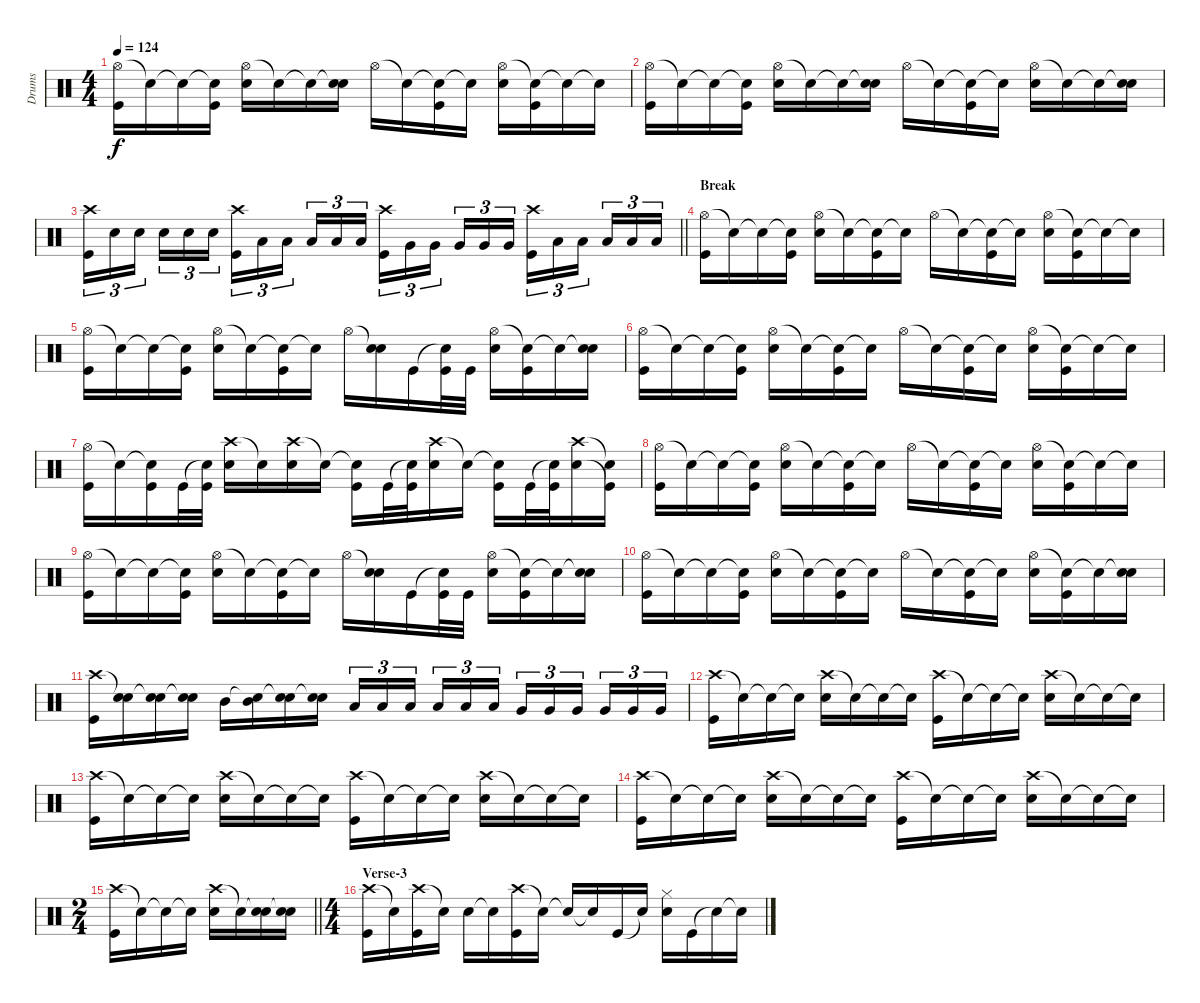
\track ("Drums" "Drums") {instrument percussion}
\staff {score}
\articulation defaults
\ts (4 4)
\tempo 124
\clef neutral
\ks c
("Hi-Hat (open)" "Kick (hit)").16{dy f} "Snare (hit)"{t}.16 "Snare (hit)"{t}.16 ("Snare (hit)"{t} "Kick (hit)").16 ("Hi-Hat (open)" "Electric Snare (hit)").16 "Snare (hit)"{t}.16 "Snare (hit)"{t}.16 ("Snare (hit)"{t} "Electric Snare (hit)").16 "Hi-Hat (open)".16 "Snare (hit)"{t}.16 ("Snare (hit)"{t} "Kick (hit)").16 "Snare (hit)"{t}.16 ("Hi-Hat (open)" "Electric Snare (hit)").16 ("Snare (hit)"{t} "Kick (hit)").16 "Snare (hit)"{t}.16 "Snare (hit)"{t}.16 |
("Hi-Hat (open)" "Kick (hit)").16 "Snare (hit)"{t}.16 "Snare (hit)"{t}.16 ("Snare (hit)"{t} "Kick (hit)").16 ("Hi-Hat (open)" "Electric Snare (hit)").16 "Snare (hit)"{t}.16 "Snare (hit)"{t}.16 ("Snare (hit)"{t} "Electric Snare (hit)").16 "Hi-Hat (open)".16 "Snare (hit)"{t}.16 ("Snare (hit)"{t} "Kick (hit)").16 "Snare (hit)"{t}.16 ("Hi-Hat (open)" "Electric Snare (hit)").16 "Snare (hit)"{t}.16 "Snare (hit)"{t}.16 ("Snare (hit)"{t} "Electric Snare (hit)").16 |
\barLineRight lightlight
("Crash high (hit)" "Kick (hit)").16{tu (3 2)} "Electric Snare (hit)".16{tu (3 2)} "Electric Snare (hit)".16{tu (3 2)} "Electric Snare (hit)".16{tu (3 2)} "Electric Snare (hit)".16{tu (3 2)} "Electric Snare (hit)".16{tu (3 2)} ("Crash high (hit)" "Kick (hit)").16{tu (3 2)} "Low Tom (hit)".16{tu (3 2)} "Low Tom (hit)".16{tu (3 2)} "Low Tom (hit)".16{tu (3 2)} "Low Tom (hit)".16{tu (3 2)} "Low Tom (hit)".16{tu (3 2)} ("Crash high (hit)" "Kick (hit)").16{tu (3 2)} "Very Low Tom (hit)".16{tu (3 2)} "Very Low Tom (hit)".16{tu (3 2)} "Very Low Tom (hit)".16{tu (3 2)} "Very Low Tom (hit)".16{tu (3 2)} "Very Low Tom (hit)".16{tu (3 2)} ("Crash high (hit)" "Kick (hit)").16{tu (3 2)} "Low Floor Tom (hit)".16{tu (3 2)} "Low Floor Tom (hit)".16{tu (3 2)} "Low Floor Tom (hit)".16{tu (3 2)} "Low Floor Tom (hit)".16{tu (3 2)} "Low Floor Tom (hit)".16{tu (3 2)} |
\section ("" "Break")
("Hi-Hat (open)" "Kick (hit)").16 "Snare (hit)"{t}.16 "Snare (hit)"{t}.16 ("Snare (hit)"{t} "Kick (hit)").16 ("Hi-Hat (open)" "Electric Snare (hit)").16 "Snare (hit)"{t}.16 ("Snare (hit)"{t} "Kick (hit)").16 "Snare (hit)"{t}.16 "Hi-Hat (open)".16 "Snare (hit)"{t}.16 ("Snare (hit)"{t} "Kick (hit)").16 "Snare (hit)"{t}.16 ("Hi-Hat (open)" "Electric Snare (hit)").16 ("Snare (hit)"{t} "Kick (hit)").16 "Snare (hit)"{t}.16 "Snare (hit)"{t}.16 |
("Hi-Hat (open)" "Kick (hit)").16 "Snare (hit)"{t}.16 "Snare (hit)"{t}.16 ("Snare (hit)"{t} "Kick (hit)").16 ("Hi-Hat (open)" "Electric Snare (hit)").16 "Snare (hit)"{t}.16 ("Snare (hit)"{t} "Kick (hit)").16 "Snare (hit)"{t}.16 "Hi-Hat (open)".16 ("Snare (hit)"{t} "Electric Snare (hit)").16 "Kick (hit)".16 ("Snare (hit)"{t} "Kick (hit)").32 "Kick (hit)".32 ("Hi-Hat (open)" "Electric Snare (hit)").16 ("Snare (hit)"{t} "Kick (hit)").16 "Snare (hit)"{t}.16 ("Snare (hit)"{t} "Electric Snare (hit)").16 |
("Hi-Hat (open)" "Kick (hit)").16 "Snare (hit)"{t}.16 "Snare (hit)"{t}.16 ("Snare (hit)"{t} "Kick (hit)").16 ("Hi-Hat (open)" "Electric Snare (hit)").16 "Snare (hit)"{t}.16 ("Snare (hit)"{t} "Kick (hit)").16 "Snare (hit)"{t}.16 "Hi-Hat (open)".16 "Snare (hit)"{t}.16 ("Snare (hit)"{t} "Kick (hit)").16 "Snare (hit)"{t}.16 ("Hi-Hat (open)" "Electric Snare (hit)").16 ("Snare (hit)"{t} "Kick (hit)").16 "Snare (hit)"{t}.16 "Snare (hit)"{t}.16 |
("Hi-Hat (open)" "Kick (hit)").16 "Snare (hit)"{t}.16 ("Snare (hit)"{t} "Kick (hit)").16 "Kick (hit)".32 ("Snare (hit)"{t} "Kick (hit)").32 ("Crash high (hit)" "Electric Snare (hit)").16 "Snare (hit)"{t}.16 ("Crash high (hit)" "Electric Snare (hit)").16 "Snare (hit)"{t}.16 ("Snare (hit)"{t} "Kick (hit)").16 "Kick (hit)".32 ("Snare (hit)"{t} "Kick (hit)").32 ("Crash high (hit)" "Electric Snare (hit)").16 "Snare (hit)"{t}.16 ("Snare (hit)"{t} "Kick (hit)").16 "Kick (hit)".32 ("Snare (hit)"{t} "Kick (hit)").32 ("Crash high (hit)" "Electric Snare (hit)").16 ("Snare (hit)"{t} "Kick (hit)"{t}).16 |
("Hi-Hat (open)" "Kick (hit)").16 "Snare (hit)"{t}.16 "Snare (hit)"{t}.16 ("Snare (hit)"{t} "Kick (hit)").16 ("Hi-Hat (open)" "Electric Snare (hit)").16 "Snare (hit)"{t}.16 ("Snare (hit)"{t} "Kick (hit)").16 "Snare (hit)"{t}.16 "Hi-Hat (open)".16 "Snare (hit)"{t}.16 ("Snare (hit)"{t} "Kick (hit)").16 "Snare (hit)"{t}.16 ("Hi-Hat (open)" "Electric Snare (hit)").16 ("Snare (hit)"{t} "Kick (hit)").16 "Snare (hit)"{t}.16 "Snare (hit)"{t}.16 |
("Hi-Hat (open)" "Kick (hit)").16 "Snare (hit)"{t}.16 "Snare (hit)"{t}.16 ("Snare (hit)"{t} "Kick (hit)").16 ("Hi-Hat (open)" "Electric Snare (hit)").16 "Snare (hit)"{t}.16 ("Snare (hit)"{t} "Kick (hit)").16 "Snare (hit)"{t}.16 "Hi-Hat (open)".16 ("Snare (hit)"{t} "Electric Snare (hit)").16 "Kick (hit)".16 ("Snare (hit)"{t} "Kick (hit)").32 "Kick (hit)".32 ("Hi-Hat (open)" "Electric Snare (hit)").16 ("Snare (hit)"{t} "Kick (hit)").16 "Snare (hit)"{t}.16 ("Snare (hit)"{t} "Electric Snare (hit)").16 |
("Hi-Hat (open)" "Kick (hit)").16 "Snare (hit)"{t}.16 "Snare (hit)"{t}.16 ("Snare (hit)"{t} "Kick (hit)").16 ("Hi-Hat (open)" "Electric Snare (hit)").16 "Snare (hit)"{t}.16 ("Snare (hit)"{t} "Kick (hit)").16 "Snare (hit)"{t}.16 "Hi-Hat (open)".16 "Snare (hit)"{t}.16 ("Snare (hit)"{t} "Kick (hit)").16 "Snare (hit)"{t}.16 ("Hi-Hat (open)" "Electric Snare (hit)").16 ("Snare (hit)"{t} "Kick (hit)").16 "Snare (hit)"{t}.16 ("Snare (hit)"{t} "Electric Snare (hit)").16 |
("Crash high (hit)" "Kick (hit)").16 ("Snare (hit)"{t} "Electric Snare (hit)").16 ("Snare (hit)"{t} "Electric Snare (hit)").16 ("Snare (hit)"{t} "Electric Snare (hit)").16 "Mid Tom (hit)".16 ("Snare (hit)"{t} "Mid Tom (hit)").16 ("Snare (hit)"{t} "Electric Snare (hit)").16 ("Snare (hit)"{t} "Electric Snare (hit)").16 "Low Tom (hit)".16{tu (3 2)} "Low Tom (hit)".16{tu (3 2)} "Low Tom (hit)".16{tu (3 2)} "Low Tom (hit)".16{tu (3 2)} "Low Tom (hit)".16{tu (3 2)} "Low Tom (hit)".16{tu (3 2)} "Very Low Tom (hit)".16{tu (3 2)} "Very Low Tom (hit)".16{tu (3 2)} "Very Low Tom (hit)".16{tu (3 2)} "Very Low Tom (hit)".16{tu (3 2)} "Very Low Tom (hit)".16{tu (3 2)} "Very Low Tom (hit)".16{tu (3 2)} |
("Crash high (hit)" "Kick (hit)").16 "Snare (hit)"{t}.16 "Snare (hit)"{t}.16 "Snare (hit)"{t}.16 ("Crash high (hit)" "Electric Snare (hit)").16 "Snare (hit)"{t}.16 "Snare (hit)"{t}.16 "Snare (hit)"{t}.16 ("Crash high (hit)" "Kick (hit)").16 "Snare (hit)"{t}.16 "Snare (hit)"{t}.16 "Snare (hit)"{t}.16 ("Crash high (hit)" "Electric Snare (hit)").16 "Snare (hit)"{t}.16 "Snare (hit)"{t}.16 "Snare (hit)"{t}.16 |
("Crash high (hit)" "Kick (hit)").16 "Snare (hit)"{t}.16 "Snare (hit)"{t}.16 "Snare (hit)"{t}.16 ("Crash high (hit)" "Electric Snare (hit)").16 "Snare (hit)"{t}.16 "Snare (hit)"{t}.16 "Snare (hit)"{t}.16 ("Crash high (hit)" "Kick (hit)").16 "Snare (hit)"{t}.16 "Snare (hit)"{t}.16 "Snare (hit)"{t}.16 ("Crash high (hit)" "Electric Snare (hit)").16 "Snare (hit)"{t}.16 "Snare (hit)"{t}.16 "Snare (hit)"{t}.16 |
("Crash high (hit)" "Kick (hit)").16 "Snare (hit)"{t}.16 "Snare (hit)"{t}.16 "Snare (hit)"{t}.16 ("Crash high (hit)" "Electric Snare (hit)").16 "Snare (hit)"{t}.16 "Snare (hit)"{t}.16 "Snare (hit)"{t}.16 ("Crash high (hit)" "Kick (hit)").16 "Snare (hit)"{t}.16 "Snare (hit)"{t}.16 "Snare (hit)"{t}.16 ("Crash high (hit)" "Electric Snare (hit)").16 "Snare (hit)"{t}.16 "Snare (hit)"{t}.16 "Snare (hit)"{t}.16 |
\ts (2 4)
\barLineRight lightlight
("Crash high (hit)" "Kick (hit)").16 "Snare (hit)"{t}.16 "Snare (hit)"{t}.16 "Snare (hit)"{t}.16 ("Crash high (hit)" "Electric Snare (hit)").16 "Snare (hit)"{t}.16 ("Snare (hit)"{t} "Electric Snare (hit)").16 ("Snare (hit)"{t} "Electric Snare (hit)").16 |
\ts (4 4)
\section ("" "Verse-3")
("Crash high (hit)" "Kick (hit)").16 "Snare (hit)"{t}.16 ("Crash high (hit)" "Kick (hit)").16 "Snare (hit)"{t}.16 "Electric Snare (hit)".16 "Snare (hit)"{t}.16 ("Crash high (hit)" "Kick (hit)").16 "Snare (hit)"{t}.16 "Snare (hit)"{t}.16 "Snare (hit)"{t}.16 "Kick (hit)".16 "Snare (hit)"{t}.16 ("Hi-Hat (closed)" "Electric Snare (hit)").16 "Kick (hit)".16 "Snare (hit)"{t}.16 "Snare (hit)"{t}.16
